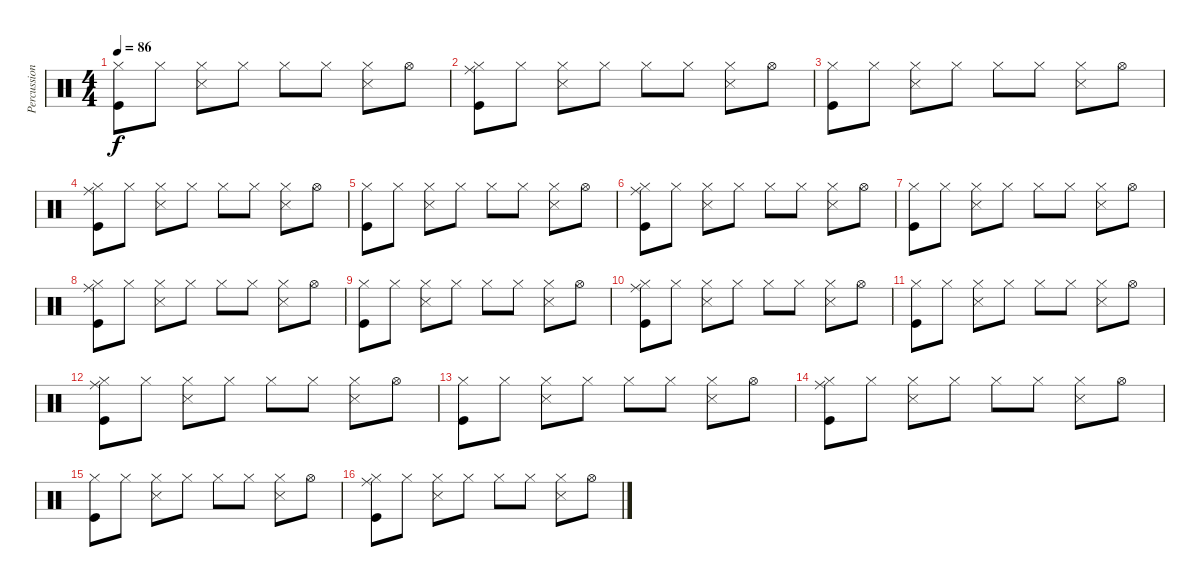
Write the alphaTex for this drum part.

\track ("Percussion" "Percussion") {instrument percussion}
\staff {score}
\articulation defaults
\ts (4 4)
\tempo 86
\clef neutral
\ks c
("Kick (hit)" "Hi-Hat (closed)").8{dy f} "Hi-Hat (closed)".8 ("Hi-Hat (closed)" "Snare (side stick) 3").8 "Hi-Hat (closed)".8 "Hi-Hat (closed)".8 "Hi-Hat (closed)".8 ("Hi-Hat (closed)" "Snare (side stick) 3").8 "Hi-Hat (open)".8 |
("Kick (hit)" "Ride (middle)" "Hi-Hat (closed)").8 "Hi-Hat (closed)".8 ("Hi-Hat (closed)" "Snare (side stick) 3").8 "Hi-Hat (closed)".8 "Hi-Hat (closed)".8 "Hi-Hat (closed)".8 ("Hi-Hat (closed)" "Snare (side stick) 3").8 "Hi-Hat (open)".8 |
("Kick (hit)" "Hi-Hat (closed)").8 "Hi-Hat (closed)".8 ("Hi-Hat (closed)" "Snare (side stick) 3").8 "Hi-Hat (closed)".8 "Hi-Hat (closed)".8 "Hi-Hat (closed)".8 ("Hi-Hat (closed)" "Snare (side stick) 3").8 "Hi-Hat (open)".8 |
("Kick (hit)" "Ride (middle)" "Hi-Hat (closed)").8 "Hi-Hat (closed)".8 ("Hi-Hat (closed)" "Snare (side stick) 3").8 "Hi-Hat (closed)".8 "Hi-Hat (closed)".8 "Hi-Hat (closed)".8 ("Hi-Hat (closed)" "Snare (side stick) 3").8 "Hi-Hat (open)".8 |
("Kick (hit)" "Hi-Hat (closed)").8 "Hi-Hat (closed)".8 ("Hi-Hat (closed)" "Snare (side stick) 3").8 "Hi-Hat (closed)".8 "Hi-Hat (closed)".8 "Hi-Hat (closed)".8 ("Hi-Hat (closed)" "Snare (side stick) 3").8 "Hi-Hat (open)".8 |
("Kick (hit)" "Ride (middle)" "Hi-Hat (closed)").8 "Hi-Hat (closed)".8 ("Hi-Hat (closed)" "Snare (side stick) 3").8 "Hi-Hat (closed)".8 "Hi-Hat (closed)".8 "Hi-Hat (closed)".8 ("Hi-Hat (closed)" "Snare (side stick) 3").8 "Hi-Hat (open)".8 |
("Kick (hit)" "Hi-Hat (closed)").8 "Hi-Hat (closed)".8 ("Hi-Hat (closed)" "Snare (side stick) 3").8 "Hi-Hat (closed)".8 "Hi-Hat (closed)".8 "Hi-Hat (closed)".8 ("Hi-Hat (closed)" "Snare (side stick) 3").8 "Hi-Hat (open)".8 |
("Kick (hit)" "Ride (middle)" "Hi-Hat (closed)").8 "Hi-Hat (closed)".8 ("Hi-Hat (closed)" "Snare (side stick) 3").8 "Hi-Hat (closed)".8 "Hi-Hat (closed)".8 "Hi-Hat (closed)".8 ("Hi-Hat (closed)" "Snare (side stick) 3").8 "Hi-Hat (open)".8 |
("Kick (hit)" "Hi-Hat (closed)").8 "Hi-Hat (closed)".8 ("Hi-Hat (closed)" "Snare (side stick) 3").8 "Hi-Hat (closed)".8 "Hi-Hat (closed)".8 "Hi-Hat (closed)".8 ("Hi-Hat (closed)" "Snare (side stick) 3").8 "Hi-Hat (open)".8 |
("Kick (hit)" "Ride (middle)" "Hi-Hat (closed)").8 "Hi-Hat (closed)".8 ("Hi-Hat (closed)" "Snare (side stick) 3").8 "Hi-Hat (closed)".8 "Hi-Hat (closed)".8 "Hi-Hat (closed)".8 ("Hi-Hat (closed)" "Snare (side stick) 3").8 "Hi-Hat (open)".8 |
("Kick (hit)" "Hi-Hat (closed)").8 "Hi-Hat (closed)".8 ("Hi-Hat (closed)" "Snare (side stick) 3").8 "Hi-Hat (closed)".8 "Hi-Hat (closed)".8 "Hi-Hat (closed)".8 ("Hi-Hat (closed)" "Snare (side stick) 3").8 "Hi-Hat (open)".8 |
("Kick (hit)" "Ride (middle)" "Hi-Hat (closed)").8 "Hi-Hat (closed)".8 ("Hi-Hat (closed)" "Snare (side stick) 3").8 "Hi-Hat (closed)".8 "Hi-Hat (closed)".8 "Hi-Hat (closed)".8 ("Hi-Hat (closed)" "Snare (side stick) 3").8 "Hi-Hat (open)".8 |
("Kick (hit)" "Hi-Hat (closed)").8 "Hi-Hat (closed)".8 ("Hi-Hat (closed)" "Snare (side stick) 3").8 "Hi-Hat (closed)".8 "Hi-Hat (closed)".8 "Hi-Hat (closed)".8 ("Hi-Hat (closed)" "Snare (side stick) 3").8 "Hi-Hat (open)".8 |
("Kick (hit)" "Ride (middle)" "Hi-Hat (closed)").8 "Hi-Hat (closed)".8 ("Hi-Hat (closed)" "Snare (side stick) 3").8 "Hi-Hat (closed)".8 "Hi-Hat (closed)".8 "Hi-Hat (closed)".8 ("Hi-Hat (closed)" "Snare (side stick) 3").8 "Hi-Hat (open)".8 |
("Kick (hit)" "Hi-Hat (closed)").8 "Hi-Hat (closed)".8 ("Hi-Hat (closed)" "Snare (side stick) 3").8 "Hi-Hat (closed)".8 "Hi-Hat (closed)".8 "Hi-Hat (closed)".8 ("Hi-Hat (closed)" "Snare (side stick) 3").8 "Hi-Hat (open)".8 |
("Kick (hit)" "Ride (middle)" "Hi-Hat (closed)").8 "Hi-Hat (closed)".8 ("Hi-Hat (closed)" "Snare (side stick) 3").8 "Hi-Hat (closed)".8 "Hi-Hat (closed)".8 "Hi-Hat (closed)".8 ("Hi-Hat (closed)" "Snare (side stick) 3").8 "Hi-Hat (open)".8
